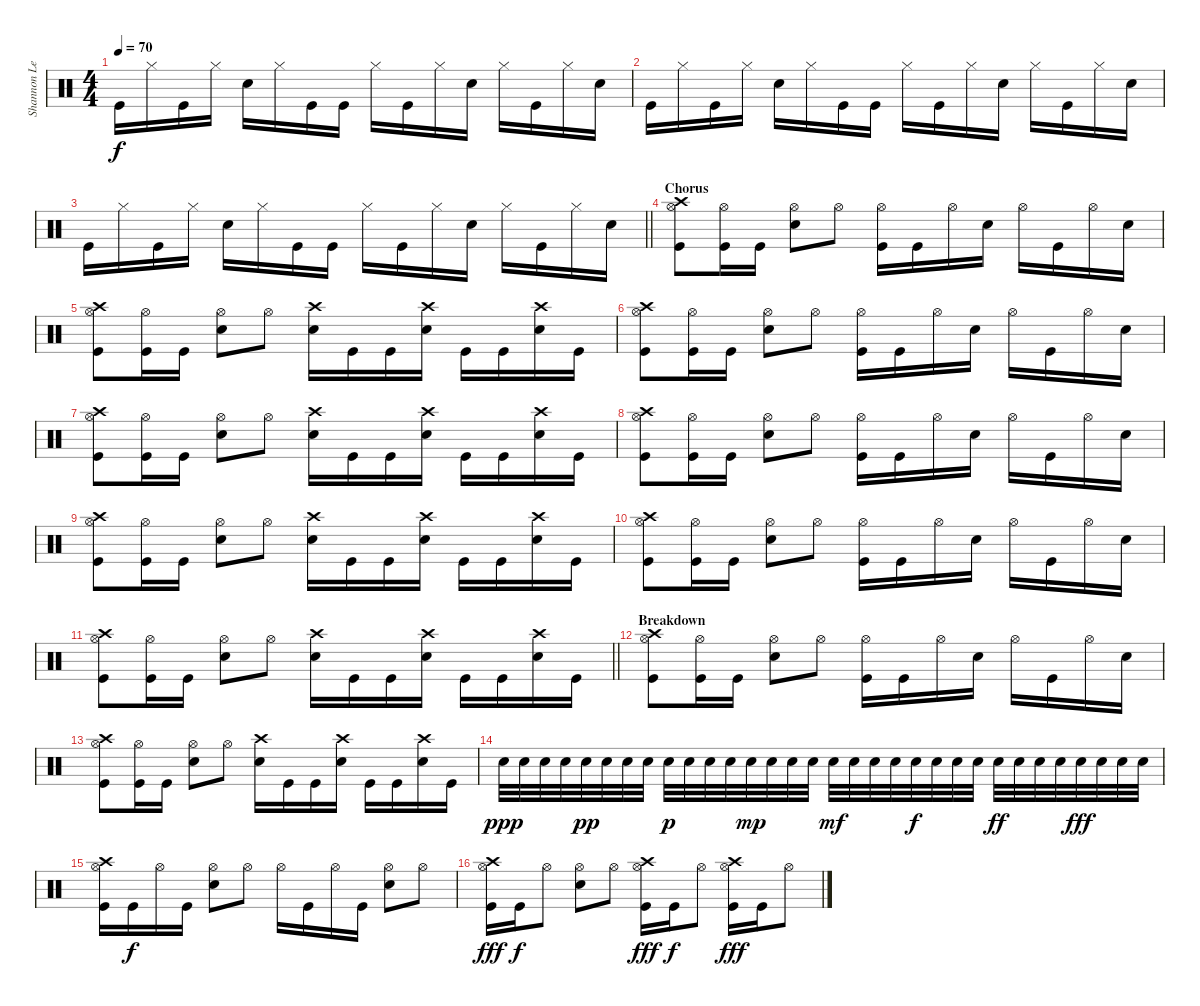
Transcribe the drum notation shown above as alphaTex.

\track ("Shannon Leto (Drums)" "Shannon Le") {instrument percussion}
\staff {score}
\articulation defaults
\ts (4 4)
\tempo 70
\clef neutral
\ks c "Kick (hit)".16{dy f} "Hi-Hat (closed)".16 "Kick (hit)".16 "Hi-Hat (closed)".16 "Snare (hit) 2".16 "Hi-Hat (closed)".16 "Kick (hit)".16 "Kick (hit)".16 "Hi-Hat (closed)".16 "Kick (hit)".16 "Hi-Hat (closed)".16 "Snare (hit) 2".16 "Hi-Hat (closed)".16 "Kick (hit)".16 "Hi-Hat (closed)".16 "Snare (hit) 2".16
|
"Kick (hit)".16 "Hi-Hat (closed)".16 "Kick (hit)".16 "Hi-Hat (closed)".16 "Snare (hit) 2".16 "Hi-Hat (closed)".16 "Kick (hit)".16 "Kick (hit)".16 "Hi-Hat (closed)".16 "Kick (hit)".16 "Hi-Hat (closed)".16 "Snare (hit) 2".16 "Hi-Hat (closed)".16 "Kick (hit)".16 "Hi-Hat (closed)".16 "Snare (hit) 2".16 |
\barLineRight lightlight "Kick (hit)".16 "Hi-Hat (closed)".16 "Kick (hit)".16 "Hi-Hat (closed)".16 "Snare (hit) 2".16 "Hi-Hat (closed)".16 "Kick (hit)".16 "Kick (hit)".16 "Hi-Hat (closed)".16 "Kick (hit)".16 "Hi-Hat (closed)".16 "Snare (hit) 2".16 "Hi-Hat (closed)".16 "Kick (hit)".16 "Hi-Hat (closed)".16 "Snare (hit) 2".16
|
\section ("" "Chorus")
("Crash high (hit)" "Hi-Hat (open)" "Kick (hit)").8 ("Hi-Hat (open)" "Kick (hit)").16 "Kick (hit)".16 ("Hi-Hat (open)" "Snare (hit) 2").8 "Hi-Hat (open)".8 ("Hi-Hat (open)" "Kick (hit)").16 "Kick (hit)".16 "Hi-Hat (open)".16 "Snare (hit) 2".16 "Hi-Hat (open)".16 "Kick (hit)".16 "Hi-Hat (open)".16 "Snare (hit) 2".16 |
("Crash high (hit)" "Hi-Hat (open)" "Kick (hit)").8 ("Hi-Hat (open)" "Kick (hit)").16 "Kick (hit)".16 ("Hi-Hat (open)" "Snare (hit) 2").8 "Hi-Hat (open)".8 ("Crash high (hit)" "Snare (hit) 2").16 "Kick (hit)".16 "Kick (hit)".16 ("Crash high (hit)" "Snare (hit) 2").16 "Kick (hit)".16 "Kick (hit)".16 ("Crash high (hit)" "Snare (hit) 2").16 "Kick (hit)".16 |
("Crash high (hit)" "Hi-Hat (open)" "Kick (hit)").8 ("Hi-Hat (open)" "Kick (hit)").16 "Kick (hit)".16 ("Hi-Hat (open)" "Snare (hit) 2").8 "Hi-Hat (open)".8 ("Hi-Hat (open)" "Kick (hit)").16 "Kick (hit)".16 "Hi-Hat (open)".16 "Snare (hit) 2".16 "Hi-Hat (open)".16 "Kick (hit)".16 "Hi-Hat (open)".16 "Snare (hit) 2".16 |
("Crash high (hit)" "Hi-Hat (open)" "Kick (hit)").8 ("Hi-Hat (open)" "Kick (hit)").16 "Kick (hit)".16 ("Hi-Hat (open)" "Snare (hit) 2").8 "Hi-Hat (open)".8 ("Crash high (hit)" "Snare (hit) 2").16 "Kick (hit)".16 "Kick (hit)".16 ("Crash high (hit)" "Snare (hit) 2").16 "Kick (hit)".16 "Kick (hit)".16 ("Crash high (hit)" "Snare (hit) 2").16 "Kick (hit)".16 |
("Crash high (hit)" "Hi-Hat (open)" "Kick (hit)").8 ("Hi-Hat (open)" "Kick (hit)").16 "Kick (hit)".16 ("Hi-Hat (open)" "Snare (hit) 2").8 "Hi-Hat (open)".8 ("Hi-Hat (open)" "Kick (hit)").16 "Kick (hit)".16 "Hi-Hat (open)".16 "Snare (hit) 2".16 "Hi-Hat (open)".16 "Kick (hit)".16 "Hi-Hat (open)".16 "Snare (hit) 2".16 |
("Crash high (hit)" "Hi-Hat (open)" "Kick (hit)").8 ("Hi-Hat (open)" "Kick (hit)").16 "Kick (hit)".16 ("Hi-Hat (open)" "Snare (hit) 2").8 "Hi-Hat (open)".8 ("Crash high (hit)" "Snare (hit) 2").16 "Kick (hit)".16 "Kick (hit)".16 ("Crash high (hit)" "Snare (hit) 2").16 "Kick (hit)".16 "Kick (hit)".16 ("Crash high (hit)" "Snare (hit) 2").16 "Kick (hit)".16 |
("Crash high (hit)" "Hi-Hat (open)" "Kick (hit)").8 ("Hi-Hat (open)" "Kick (hit)").16 "Kick (hit)".16 ("Hi-Hat (open)" "Snare (hit) 2").8 "Hi-Hat (open)".8 ("Hi-Hat (open)" "Kick (hit)").16 "Kick (hit)".16 "Hi-Hat (open)".16 "Snare (hit) 2".16 "Hi-Hat (open)".16 "Kick (hit)".16 "Hi-Hat (open)".16 "Snare (hit) 2".16 |
\barLineRight lightlight
("Crash high (hit)" "Hi-Hat (open)" "Kick (hit)").8 ("Hi-Hat (open)" "Kick (hit)").16 "Kick (hit)".16 ("Hi-Hat (open)" "Snare (hit) 2").8 "Hi-Hat (open)".8 ("Crash high (hit)" "Snare (hit) 2").16 "Kick (hit)".16 "Kick (hit)".16 ("Crash high (hit)" "Snare (hit) 2").16 "Kick (hit)".16 "Kick (hit)".16 ("Crash high (hit)" "Snare (hit) 2").16 "Kick (hit)".16 |
\section ("" "Breakdown")
("Crash high (hit)" "Hi-Hat (open)" "Kick (hit)").8 ("Hi-Hat (open)" "Kick (hit)").16 "Kick (hit)".16 ("Hi-Hat (open)" "Snare (hit) 2").8 "Hi-Hat (open)".8 ("Hi-Hat (open)" "Kick (hit)").16 "Kick (hit)".16 "Hi-Hat (open)".16 "Snare (hit) 2".16 "Hi-Hat (open)".16 "Kick (hit)".16 "Hi-Hat (open)".16 "Snare (hit) 2".16 |
("Crash high (hit)" "Hi-Hat (open)" "Kick (hit)").8 ("Hi-Hat (open)" "Kick (hit)").16 "Kick (hit)".16 ("Hi-Hat (open)" "Snare (hit) 2").8 "Hi-Hat (open)".8 ("Crash high (hit)" "Snare (hit) 2").16 "Kick (hit)".16 "Kick (hit)".16 ("Crash high (hit)" "Snare (hit) 2").16 "Kick (hit)".16 "Kick (hit)".16 ("Crash high (hit)" "Snare (hit) 2").16 "Kick (hit)".16 |
"Snare (hit) 2".32{dy ppp} "Snare (hit) 2".32 "Snare (hit) 2".32 "Snare (hit) 2".32 "Snare (hit) 2".32{dy pp} "Snare (hit) 2".32 "Snare (hit) 2".32 "Snare (hit) 2".32 "Snare (hit) 2".32{dy p} "Snare (hit) 2".32 "Snare (hit) 2".32 "Snare (hit) 2".32 "Snare (hit) 2".32{dy mp} "Snare (hit) 2".32 "Snare (hit) 2".32 "Snare (hit) 2".32 "Snare (hit) 2".32{dy mf} "Snare (hit) 2".32 "Snare (hit) 2".32 "Snare (hit) 2".32 "Snare (hit) 2".32{dy f} "Snare (hit) 2".32 "Snare (hit) 2".32 "Snare (hit) 2".32 "Snare (hit) 2".32{dy ff} "Snare (hit) 2".32 "Snare (hit) 2".32 "Snare (hit) 2".32 "Snare (hit) 2".32{dy fff} "Snare (hit) 2".32 "Snare (hit) 2".32 "Snare (hit) 2".32 |
("Crash high (hit)" "Hi-Hat (open)" "Kick (hit)").16 "Kick (hit)".16{dy f} "Hi-Hat (open)".16 "Kick (hit)".16 ("Hi-Hat (open)" "Snare (hit) 2").8 "Hi-Hat (open)".8 "Hi-Hat (open)".16 "Kick (hit)".16 "Hi-Hat (open)".16 "Kick (hit)".16 ("Hi-Hat (open)" "Snare (hit) 2").8 "Hi-Hat (open)".8 |
("Crash high (hit)" "Hi-Hat (open)" "Kick (hit)").16{dy fff} "Kick (hit)".16{dy f} "Hi-Hat (open)".8 ("Hi-Hat (open)" "Snare (hit) 2").8 "Hi-Hat (open)".8 ("Crash high (hit)" "Hi-Hat (open)" "Kick (hit)").16{dy fff} "Kick (hit)".16{dy f} "Hi-Hat (open)".8 ("Crash high (hit)" "Hi-Hat (open)" "Kick (hit)").16{dy fff} "Kick (hit)".16 "Hi-Hat (open)".8
